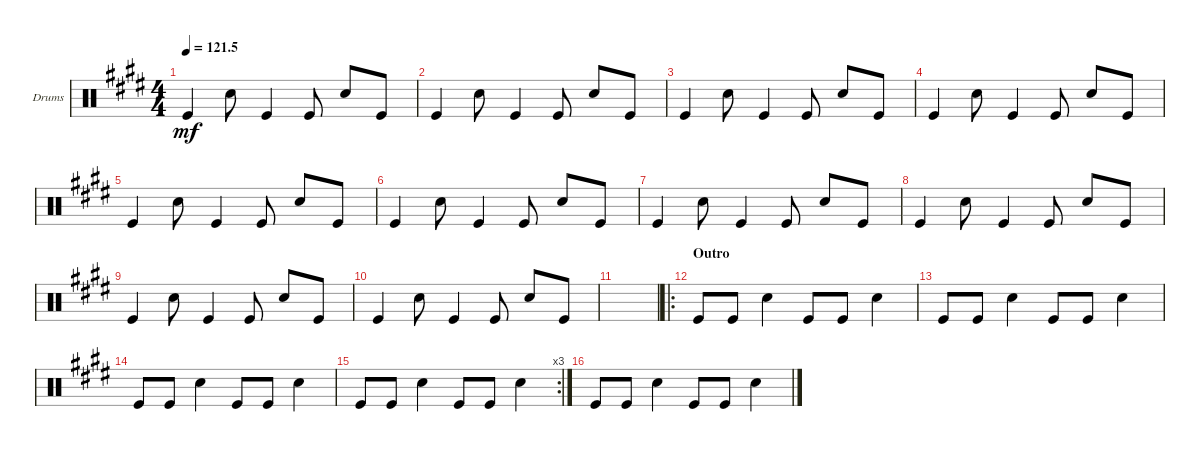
\defaultSystemsLayout 4
\bracketExtendMode groupsimilarinstruments
\firstSystemTrackNameOrientation horizontal
\otherSystemsTrackNameOrientation horizontal
\track ("Drumkit" "Drums") {solo instrument percussion}
\staff {score}
\articulation defaults
\ts (4 4)
\tempo
121.5
\accidentals auto
\clef neutral
\ottava regular
\simile none
\ks e "Kick (hit)".4{dy mf} "Snare (hit) 2".8 "Kick (hit)".4 "Kick (hit)".8 "Snare (hit) 2".8 "Kick (hit)".8
|
"Kick (hit)".4 "Snare (hit) 2".8 "Kick (hit)".4 "Kick (hit)".8 "Snare (hit) 2".8 "Kick (hit)".8 |
"Kick (hit)".4 "Snare (hit) 2".8 "Kick (hit)".4 "Kick (hit)".8 "Snare (hit) 2".8 "Kick (hit)".8 |
"Kick (hit)".4 "Snare (hit) 2".8 "Kick (hit)".4 "Kick (hit)".8 "Snare (hit) 2".8 "Kick (hit)".8 |
"Kick (hit)".4 "Snare (hit) 2".8 "Kick (hit)".4 "Kick (hit)".8 "Snare (hit) 2".8 "Kick (hit)".8 |
"Kick (hit)".4 "Snare (hit) 2".8 "Kick (hit)".4 "Kick (hit)".8 "Snare (hit) 2".8 "Kick (hit)".8 |
"Kick (hit)".4 "Snare (hit) 2".8 "Kick (hit)".4 "Kick (hit)".8 "Snare (hit) 2".8 "Kick (hit)".8 |
"Kick (hit)".4 "Snare (hit) 2".8 "Kick (hit)".4 "Kick (hit)".8 "Snare (hit) 2".8 "Kick (hit)".8 |
"Kick (hit)".4 "Snare (hit) 2".8 "Kick (hit)".4 "Kick (hit)".8 "Snare (hit) 2".8 "Kick (hit)".8 |
"Kick (hit)".4 "Snare (hit) 2".8 "Kick (hit)".4 "Kick (hit)".8 "Snare (hit) 2".8 "Kick (hit)".8 |
|
\ro
\section ("" "Outro")
"Kick (hit)".8 "Kick (hit)".8 "Snare (hit) 2".4 "Kick (hit)".8 "Kick (hit)".8 "Snare (hit) 2".4 |
"Kick (hit)".8 "Kick (hit)".8 "Snare (hit) 2".4 "Kick (hit)".8 "Kick (hit)".8 "Snare (hit) 2".4 |
"Kick (hit)".8 "Kick (hit)".8 "Snare (hit) 2".4 "Kick (hit)".8 "Kick (hit)".8 "Snare (hit) 2".4 |
\rc 3 "Kick (hit)".8 "Kick (hit)".8 "Snare (hit) 2".4 "Kick (hit)".8 "Kick (hit)".8 "Snare (hit) 2".4
|
"Kick (hit)".8 "Kick (hit)".8 "Snare (hit) 2".4 "Kick (hit)".8 "Kick (hit)".8 "Snare (hit) 2".4
